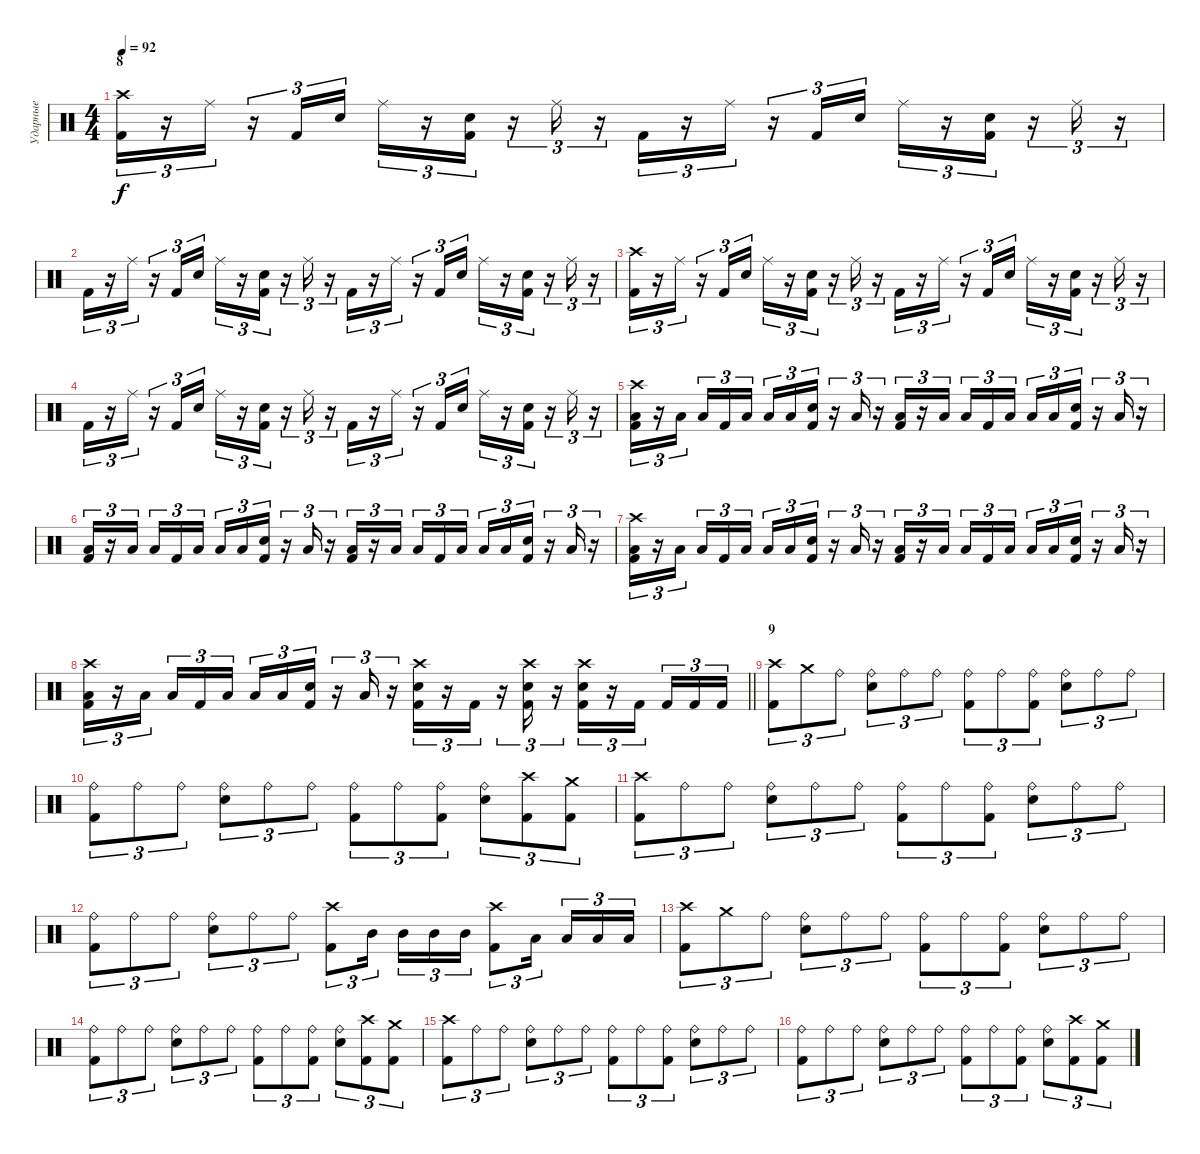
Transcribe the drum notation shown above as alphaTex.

\track ("Ударные" "Ударные") {instrument percussion}
\staff {score}
\articulation defaults
\ts (4 4)
\section ("" "8")
\tempo 92
\clef neutral
\ks c
("Crash high (hit)" "Kick (hit) 2").16{tu (3 2) dy f} r.16{tu (3 2)} "Ride (middle)".16{tu (3 2)} r.16{tu (3 2)} "Kick (hit) 2".16{tu (3 2)} "Electric Snare (hit)".16{tu (3 2)} "Ride (middle)".16{tu (3 2)} r.16{tu (3 2)} ("Electric Snare (hit)" "Kick (hit) 2").16{tu (3 2)} r.16{tu (3 2)} "Ride (middle)".16{tu (3 2)} r.16{tu (3 2)} "Kick (hit) 2".16{tu (3 2)} r.16{tu (3 2)} "Ride (middle)".16{tu (3 2)} r.16{tu (3 2)} "Kick (hit) 2".16{tu (3 2)} "Electric Snare (hit)".16{tu (3 2)} "Ride (middle)".16{tu (3 2)} r.16{tu (3 2)} ("Electric Snare (hit)" "Kick (hit) 2").16{tu (3 2)} r.16{tu (3 2)} "Ride (middle)".16{tu (3 2)} r.16{tu (3 2)} |
"Kick (hit) 2".16{tu (3 2)} r.16{tu (3 2)} "Ride (middle)".16{tu (3 2)} r.16{tu (3 2)} "Kick (hit) 2".16{tu (3 2)} "Electric Snare (hit)".16{tu (3 2)} "Ride (middle)".16{tu (3 2)} r.16{tu (3 2)} ("Electric Snare (hit)" "Kick (hit) 2").16{tu (3 2)} r.16{tu (3 2)} "Ride (middle)".16{tu (3 2)} r.16{tu (3 2)} "Kick (hit) 2".16{tu (3 2)} r.16{tu (3 2)} "Ride (middle)".16{tu (3 2)} r.16{tu (3 2)} "Kick (hit) 2".16{tu (3 2)} "Electric Snare (hit)".16{tu (3 2)} "Ride (middle)".16{tu (3 2)} r.16{tu (3 2)} ("Electric Snare (hit)" "Kick (hit) 2").16{tu (3 2)} r.16{tu (3 2)} "Ride (middle)".16{tu (3 2)} r.16{tu (3 2)} |
("Crash high (hit)" "Kick (hit) 2").16{tu (3 2)} r.16{tu (3 2)} "Ride (middle)".16{tu (3 2)} r.16{tu (3 2)} "Kick (hit) 2".16{tu (3 2)} "Electric Snare (hit)".16{tu (3 2)} "Ride (middle)".16{tu (3 2)} r.16{tu (3 2)} ("Electric Snare (hit)" "Kick (hit) 2").16{tu (3 2)} r.16{tu (3 2)} "Ride (middle)".16{tu (3 2)} r.16{tu (3 2)} "Kick (hit) 2".16{tu (3 2)} r.16{tu (3 2)} "Ride (middle)".16{tu (3 2)} r.16{tu (3 2)} "Kick (hit) 2".16{tu (3 2)} "Electric Snare (hit)".16{tu (3 2)} "Ride (middle)".16{tu (3 2)} r.16{tu (3 2)} ("Electric Snare (hit)" "Kick (hit) 2").16{tu (3 2)} r.16{tu (3 2)} "Ride (middle)".16{tu (3 2)} r.16{tu (3 2)} |
"Kick (hit) 2".16{tu (3 2)} r.16{tu (3 2)} "Ride (middle)".16{tu (3 2)} r.16{tu (3 2)} "Kick (hit) 2".16{tu (3 2)} "Electric Snare (hit)".16{tu (3 2)} "Ride (middle)".16{tu (3 2)} r.16{tu (3 2)} ("Electric Snare (hit)" "Kick (hit) 2").16{tu (3 2)} r.16{tu (3 2)} "Ride (middle)".16{tu (3 2)} r.16{tu (3 2)} "Kick (hit) 2".16{tu (3 2)} r.16{tu (3 2)} "Ride (middle)".16{tu (3 2)} r.16{tu (3 2)} "Kick (hit) 2".16{tu (3 2)} "Electric Snare (hit)".16{tu (3 2)} "Ride (middle)".16{tu (3 2)} r.16{tu (3 2)} ("Electric Snare (hit)" "Kick (hit) 2").16{tu (3 2)} r.16{tu (3 2)} "Ride (middle)".16{tu (3 2)} r.16{tu (3 2)} |
("Crash high (hit)" "Low Floor Tom (hit)" "Kick (hit) 2").16{tu (3 2)} r.16{tu (3 2)} "Low Floor Tom (hit)".16{tu (3 2) beam splitsecondary} "Low Floor Tom (hit)".16{tu (3 2)} "Kick (hit) 2".16{tu (3 2)} "Low Floor Tom (hit)".16{tu (3 2)} "Low Floor Tom (hit)".16{tu (3 2)} "Low Floor Tom (hit)".16{tu (3 2)} ("Electric Snare (hit)" "Kick (hit) 2").16{tu (3 2)} r.16{tu (3 2)} "Low Floor Tom (hit)".16{tu (3 2)} r.16{tu (3 2)} ("Low Floor Tom (hit)" "Kick (hit) 2").16{tu (3 2)} r.16{tu (3 2)} "Low Floor Tom (hit)".16{tu (3 2) beam splitsecondary} "Low Floor Tom (hit)".16{tu (3 2)} "Kick (hit) 2".16{tu (3 2)} "Low Floor Tom (hit)".16{tu (3 2)} "Low Floor Tom (hit)".16{tu (3 2)} "Low Floor Tom (hit)".16{tu (3 2)} ("Electric Snare (hit)" "Kick (hit) 2").16{tu (3 2)} r.16{tu (3 2)} "Low Floor Tom (hit)".16{tu (3 2)} r.16{tu (3 2)} |
("Low Floor Tom (hit)" "Kick (hit) 2").16{tu (3 2)} r.16{tu (3 2)} "Low Floor Tom (hit)".16{tu (3 2) beam splitsecondary} "Low Floor Tom (hit)".16{tu (3 2)} "Kick (hit) 2".16{tu (3 2)} "Low Floor Tom (hit)".16{tu (3 2)} "Low Floor Tom (hit)".16{tu (3 2)} "Low Floor Tom (hit)".16{tu (3 2)} ("Electric Snare (hit)" "Kick (hit) 2").16{tu (3 2)} r.16{tu (3 2)} "Low Floor Tom (hit)".16{tu (3 2)} r.16{tu (3 2)} ("Low Floor Tom (hit)" "Kick (hit) 2").16{tu (3 2)} r.16{tu (3 2)} "Low Floor Tom (hit)".16{tu (3 2) beam splitsecondary} "Low Floor Tom (hit)".16{tu (3 2)} "Kick (hit) 2".16{tu (3 2)} "Low Floor Tom (hit)".16{tu (3 2)} "Low Floor Tom (hit)".16{tu (3 2)} "Low Floor Tom (hit)".16{tu (3 2)} ("Electric Snare (hit)" "Kick (hit) 2").16{tu (3 2)} r.16{tu (3 2)} "Low Floor Tom (hit)".16{tu (3 2)} r.16{tu (3 2)} |
("Crash high (hit)" "Low Floor Tom (hit)" "Kick (hit) 2").16{tu (3 2)} r.16{tu (3 2)} "Low Floor Tom (hit)".16{tu (3 2) beam splitsecondary} "Low Floor Tom (hit)".16{tu (3 2)} "Kick (hit) 2".16{tu (3 2)} "Low Floor Tom (hit)".16{tu (3 2)} "Low Floor Tom (hit)".16{tu (3 2)} "Low Floor Tom (hit)".16{tu (3 2)} ("Electric Snare (hit)" "Kick (hit) 2").16{tu (3 2)} r.16{tu (3 2)} "Low Floor Tom (hit)".16{tu (3 2)} r.16{tu (3 2)} ("Low Floor Tom (hit)" "Kick (hit) 2").16{tu (3 2)} r.16{tu (3 2)} "Low Floor Tom (hit)".16{tu (3 2) beam splitsecondary} "Low Floor Tom (hit)".16{tu (3 2)} "Kick (hit) 2".16{tu (3 2)} "Low Floor Tom (hit)".16{tu (3 2)} "Low Floor Tom (hit)".16{tu (3 2)} "Low Floor Tom (hit)".16{tu (3 2)} ("Electric Snare (hit)" "Kick (hit) 2").16{tu (3 2)} r.16{tu (3 2)} "Low Floor Tom (hit)".16{tu (3 2)} r.16{tu (3 2)} |
\barLineRight lightlight
("Crash high (hit)" "Low Floor Tom (hit)" "Kick (hit) 2").16{tu (3 2)} r.16{tu (3 2)} "Low Floor Tom (hit)".16{tu (3 2) beam splitsecondary} "Low Floor Tom (hit)".16{tu (3 2)} "Kick (hit) 2".16{tu (3 2)} "Low Floor Tom (hit)".16{tu (3 2)} "Low Floor Tom (hit)".16{tu (3 2)} "Low Floor Tom (hit)".16{tu (3 2)} ("Electric Snare (hit)" "Kick (hit) 2").16{tu (3 2)} r.16{tu (3 2)} "Low Floor Tom (hit)".16{tu (3 2)} r.16{tu (3 2)} ("Crash high (hit)" "Electric Snare (hit)" "Kick (hit) 2").16{tu (3 2)} r.16{tu (3 2)} "Kick (hit) 2".16{tu (3 2)} r.16{tu (3 2)} ("Crash high (hit)" "Electric Snare (hit)" "Kick (hit) 2").16{tu (3 2)} r.16{tu (3 2)} ("Crash high (hit)" "Electric Snare (hit)" "Kick (hit) 2").16{tu (3 2)} r.16{tu (3 2)} "Kick (hit) 2".16{tu (3 2) beam splitsecondary} "Kick (hit) 2".16{tu (3 2)} "Kick (hit) 2".16{tu (3 2)} "Kick (hit) 2".16{tu (3 2)} |
\section ("" "9")
("Crash high (hit)" "Kick (hit) 2").8{tu (3 2)} "Crash medium (hit)".8{tu (3 2)} "Ride (bell)".8{tu (3 2)} ("Ride (bell)" "Electric Snare (hit)").8{tu (3 2)} "Ride (bell)".8{tu (3 2)} "Ride (bell)".8{tu (3 2)} ("Ride (bell)" "Kick (hit) 2").8{tu (3 2)} "Ride (bell)".8{tu (3 2)} ("Ride (bell)" "Kick (hit) 2").8{tu (3 2)} ("Ride (bell)" "Electric Snare (hit)").8{tu (3 2)} "Ride (bell)".8{tu (3 2)} "Ride (bell)".8{tu (3 2)} |
("Ride (bell)" "Kick (hit) 2").8{tu (3 2)} "Ride (bell)".8{tu (3 2)} "Ride (bell)".8{tu (3 2)} ("Ride (bell)" "Electric Snare (hit)").8{tu (3 2)} "Ride (bell)".8{tu (3 2)} "Ride (bell)".8{tu (3 2)} ("Ride (bell)" "Kick (hit) 2").8{tu (3 2)} "Ride (bell)".8{tu (3 2)} ("Ride (bell)" "Kick (hit) 2").8{tu (3 2)} ("Ride (bell)" "Electric Snare (hit)").8{tu (3 2)} ("Crash high (hit)" "Kick (hit) 2").8{tu (3 2)} ("Crash medium (hit)" "Kick (hit) 2").8{tu (3 2)} |
("Crash high (hit)" "Kick (hit) 2").8{tu (3 2)} "Ride (bell)".8{tu (3 2)} "Ride (bell)".8{tu (3 2)} ("Ride (bell)" "Electric Snare (hit)").8{tu (3 2)} "Ride (bell)".8{tu (3 2)} "Ride (bell)".8{tu (3 2)} ("Ride (bell)" "Kick (hit) 2").8{tu (3 2)} "Ride (bell)".8{tu (3 2)} ("Ride (bell)" "Kick (hit) 2").8{tu (3 2)} ("Ride (bell)" "Electric Snare (hit)").8{tu (3 2)} "Ride (bell)".8{tu (3 2)} "Ride (bell)".8{tu (3 2)} |
("Ride (bell)" "Kick (hit) 2").8{tu (3 2)} "Ride (bell)".8{tu (3 2)} "Ride (bell)".8{tu (3 2)} ("Ride (bell)" "Electric Snare (hit)").8{tu (3 2)} "Ride (bell)".8{tu (3 2)} "Ride (bell)".8{tu (3 2)} ("Crash high (hit)" "Kick (hit) 2").8{tu (3 2)} "Mid Tom (hit)".16{tu (3 2) beam splitsecondary} "Mid Tom (hit)".16{tu (3 2)} "Mid Tom (hit)".16{tu (3 2)} "Mid Tom (hit)".16{tu (3 2)} ("Crash high (hit)" "Kick (hit) 2").8{tu (3 2)} "Low Tom (hit)".16{tu (3 2) beam splitsecondary} "Low Tom (hit)".16{tu (3 2)} "Low Tom (hit)".16{tu (3 2)} "Low Tom (hit)".16{tu (3 2)} |
("Crash high (hit)" "Kick (hit) 2").8{tu (3 2)} "Crash medium (hit)".8{tu (3 2)} "Ride (bell)".8{tu (3 2)} ("Ride (bell)" "Electric Snare (hit)").8{tu (3 2)} "Ride (bell)".8{tu (3 2)} "Ride (bell)".8{tu (3 2)} ("Ride (bell)" "Kick (hit) 2").8{tu (3 2)} "Ride (bell)".8{tu (3 2)} ("Ride (bell)" "Kick (hit) 2").8{tu (3 2)} ("Ride (bell)" "Electric Snare (hit)").8{tu (3 2)} "Ride (bell)".8{tu (3 2)} "Ride (bell)".8{tu (3 2)} |
("Ride (bell)" "Kick (hit) 2").8{tu (3 2)} "Ride (bell)".8{tu (3 2)} "Ride (bell)".8{tu (3 2)} ("Ride (bell)" "Electric Snare (hit)").8{tu (3 2)} "Ride (bell)".8{tu (3 2)} "Ride (bell)".8{tu (3 2)} ("Ride (bell)" "Kick (hit) 2").8{tu (3 2)} "Ride (bell)".8{tu (3 2)} ("Ride (bell)" "Kick (hit) 2").8{tu (3 2)} ("Ride (bell)" "Electric Snare (hit)").8{tu (3 2)} ("Crash high (hit)" "Kick (hit) 2").8{tu (3 2)} ("Crash medium (hit)" "Kick (hit) 2").8{tu (3 2)} |
("Crash high (hit)" "Kick (hit) 2").8{tu (3 2)} "Ride (bell)".8{tu (3 2)} "Ride (bell)".8{tu (3 2)} ("Ride (bell)" "Electric Snare (hit)").8{tu (3 2)} "Ride (bell)".8{tu (3 2)} "Ride (bell)".8{tu (3 2)} ("Ride (bell)" "Kick (hit) 2").8{tu (3 2)} "Ride (bell)".8{tu (3 2)} ("Ride (bell)" "Kick (hit) 2").8{tu (3 2)} ("Ride (bell)" "Electric Snare (hit)").8{tu (3 2)} "Ride (bell)".8{tu (3 2)} "Ride (bell)".8{tu (3 2)} |
("Ride (bell)" "Kick (hit) 2").8{tu (3 2)} "Ride (bell)".8{tu (3 2)} "Ride (bell)".8{tu (3 2)} ("Ride (bell)" "Electric Snare (hit)").8{tu (3 2)} "Ride (bell)".8{tu (3 2)} "Ride (bell)".8{tu (3 2)} ("Ride (bell)" "Kick (hit) 2").8{tu (3 2)} "Ride (bell)".8{tu (3 2)} ("Ride (bell)" "Kick (hit) 2").8{tu (3 2)} ("Ride (bell)" "Electric Snare (hit)").8{tu (3 2)} ("Crash high (hit)" "Kick (hit) 2").8{tu (3 2)} ("Crash medium (hit)" "Kick (hit) 2").8{tu (3 2)}
